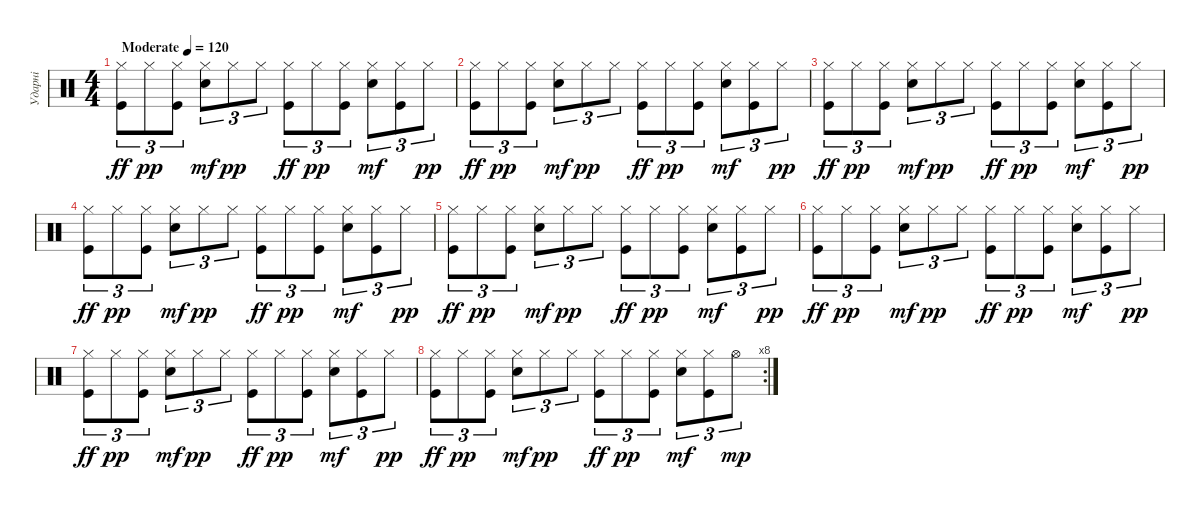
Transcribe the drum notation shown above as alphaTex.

\track ("Ударні" "Ударні") {instrument percussion}
\staff {score}
\articulation defaults
\ts (4 4)
\tempo (120 "Moderate")
\clef neutral
\ks c
("Hi-Hat (closed)" "Kick (hit)").8{tu (3 2) dy ff} "Hi-Hat (closed)".8{tu (3 2) dy pp} ("Hi-Hat (closed)" "Kick (hit)").8{tu (3 2)} ("Hi-Hat (closed)" "Snare (hit) 2").8{tu (3 2) dy mf} "Hi-Hat (closed)".8{tu (3 2) dy pp} "Hi-Hat (closed)".8{tu (3 2)} ("Hi-Hat (closed)" "Kick (hit)").8{tu (3 2) dy ff} "Hi-Hat (closed)".8{tu (3 2) dy pp} ("Hi-Hat (closed)" "Kick (hit)").8{tu (3 2)} ("Hi-Hat (closed)" "Snare (hit) 2").8{tu (3 2) dy mf} ("Hi-Hat (closed)" "Kick (hit)").8{tu (3 2)} "Hi-Hat (closed)".8{tu (3 2) dy pp} |
("Hi-Hat (closed)" "Kick (hit)").8{tu (3 2) dy ff} "Hi-Hat (closed)".8{tu (3 2) dy pp} ("Hi-Hat (closed)" "Kick (hit)").8{tu (3 2)} ("Hi-Hat (closed)" "Snare (hit) 2").8{tu (3 2) dy mf} "Hi-Hat (closed)".8{tu (3 2) dy pp} "Hi-Hat (closed)".8{tu (3 2)} ("Hi-Hat (closed)" "Kick (hit)").8{tu (3 2) dy ff} "Hi-Hat (closed)".8{tu (3 2) dy pp} ("Hi-Hat (closed)" "Kick (hit)").8{tu (3 2)} ("Hi-Hat (closed)" "Snare (hit) 2").8{tu (3 2) dy mf} ("Hi-Hat (closed)" "Kick (hit)").8{tu (3 2)} "Hi-Hat (closed)".8{tu (3 2) dy pp} |
("Hi-Hat (closed)" "Kick (hit)").8{tu (3 2) dy ff} "Hi-Hat (closed)".8{tu (3 2) dy pp} ("Hi-Hat (closed)" "Kick (hit)").8{tu (3 2)} ("Hi-Hat (closed)" "Snare (hit) 2").8{tu (3 2) dy mf} "Hi-Hat (closed)".8{tu (3 2) dy pp} "Hi-Hat (closed)".8{tu (3 2)} ("Hi-Hat (closed)" "Kick (hit)").8{tu (3 2) dy ff} "Hi-Hat (closed)".8{tu (3 2) dy pp} ("Hi-Hat (closed)" "Kick (hit)").8{tu (3 2)} ("Hi-Hat (closed)" "Snare (hit) 2").8{tu (3 2) dy mf} ("Hi-Hat (closed)" "Kick (hit)").8{tu (3 2)} "Hi-Hat (closed)".8{tu (3 2) dy pp} |
("Hi-Hat (closed)" "Kick (hit)").8{tu (3 2) dy ff} "Hi-Hat (closed)".8{tu (3 2) dy pp} ("Hi-Hat (closed)" "Kick (hit)").8{tu (3 2)} ("Hi-Hat (closed)" "Snare (hit) 2").8{tu (3 2) dy mf} "Hi-Hat (closed)".8{tu (3 2) dy pp} "Hi-Hat (closed)".8{tu (3 2)} ("Hi-Hat (closed)" "Kick (hit)").8{tu (3 2) dy ff} "Hi-Hat (closed)".8{tu (3 2) dy pp} ("Hi-Hat (closed)" "Kick (hit)").8{tu (3 2)} ("Hi-Hat (closed)" "Snare (hit) 2").8{tu (3 2) dy mf} ("Hi-Hat (closed)" "Kick (hit)").8{tu (3 2)} "Hi-Hat (closed)".8{tu (3 2) dy pp} |
("Hi-Hat (closed)" "Kick (hit)").8{tu (3 2) dy ff} "Hi-Hat (closed)".8{tu (3 2) dy pp} ("Hi-Hat (closed)" "Kick (hit)").8{tu (3 2)} ("Hi-Hat (closed)" "Snare (hit) 2").8{tu (3 2) dy mf} "Hi-Hat (closed)".8{tu (3 2) dy pp} "Hi-Hat (closed)".8{tu (3 2)} ("Hi-Hat (closed)" "Kick (hit)").8{tu (3 2) dy ff} "Hi-Hat (closed)".8{tu (3 2) dy pp} ("Hi-Hat (closed)" "Kick (hit)").8{tu (3 2)} ("Hi-Hat (closed)" "Snare (hit) 2").8{tu (3 2) dy mf} ("Hi-Hat (closed)" "Kick (hit)").8{tu (3 2)} "Hi-Hat (closed)".8{tu (3 2) dy pp} |
("Hi-Hat (closed)" "Kick (hit)").8{tu (3 2) dy ff} "Hi-Hat (closed)".8{tu (3 2) dy pp} ("Hi-Hat (closed)" "Kick (hit)").8{tu (3 2)} ("Hi-Hat (closed)" "Snare (hit) 2").8{tu (3 2) dy mf} "Hi-Hat (closed)".8{tu (3 2) dy pp} "Hi-Hat (closed)".8{tu (3 2)} ("Hi-Hat (closed)" "Kick (hit)").8{tu (3 2) dy ff} "Hi-Hat (closed)".8{tu (3 2) dy pp} ("Hi-Hat (closed)" "Kick (hit)").8{tu (3 2)} ("Hi-Hat (closed)" "Snare (hit) 2").8{tu (3 2) dy mf} ("Hi-Hat (closed)" "Kick (hit)").8{tu (3 2)} "Hi-Hat (closed)".8{tu (3 2) dy pp} |
("Hi-Hat (closed)" "Kick (hit)").8{tu (3 2) dy ff} "Hi-Hat (closed)".8{tu (3 2) dy pp} ("Hi-Hat (closed)" "Kick (hit)").8{tu (3 2)} ("Hi-Hat (closed)" "Snare (hit) 2").8{tu (3 2) dy mf} "Hi-Hat (closed)".8{tu (3 2) dy pp} "Hi-Hat (closed)".8{tu (3 2)} ("Hi-Hat (closed)" "Kick (hit)").8{tu (3 2) dy ff} "Hi-Hat (closed)".8{tu (3 2) dy pp} ("Hi-Hat (closed)" "Kick (hit)").8{tu (3 2)} ("Hi-Hat (closed)" "Snare (hit) 2").8{tu (3 2) dy mf} ("Hi-Hat (closed)" "Kick (hit)").8{tu (3 2)} "Hi-Hat (closed)".8{tu (3 2) dy pp} |
\rc 8
("Hi-Hat (closed)" "Kick (hit)").8{tu (3 2) dy ff} "Hi-Hat (closed)".8{tu (3 2) dy pp} ("Hi-Hat (closed)" "Kick (hit)").8{tu (3 2)} ("Hi-Hat (closed)" "Snare (hit) 2").8{tu (3 2) dy mf} "Hi-Hat (closed)".8{tu (3 2) dy pp} "Hi-Hat (closed)".8{tu (3 2)} ("Hi-Hat (closed)" "Kick (hit)").8{tu (3 2) dy ff} "Hi-Hat (closed)".8{tu (3 2) dy pp} ("Hi-Hat (closed)" "Kick (hit)").8{tu (3 2)} ("Hi-Hat (closed)" "Snare (hit) 2").8{tu (3 2) dy mf} ("Hi-Hat (closed)" "Kick (hit)").8{tu (3 2)} "Hi-Hat (open)".8{tu (3 2) dy mp}
